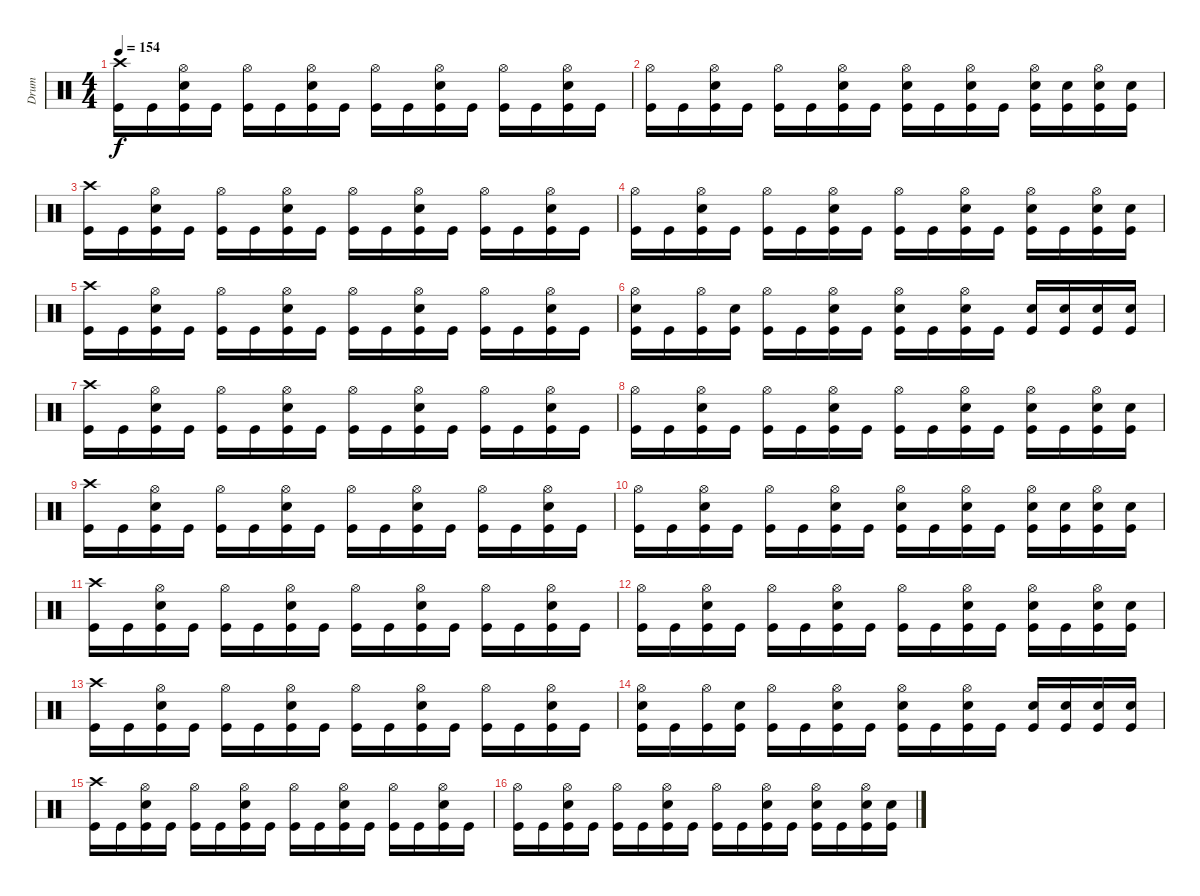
\track ("Drum" "Drum") {instrument percussion}
\staff {score}
\articulation defaults
\ts (4 4)
\tempo 154
\clef neutral
\ks c
("Kick (hit)" "Crash high (hit)").16{dy f} "Kick (hit)".16 ("Kick (hit)" "Electric Snare (hit)" "Hi-Hat (open)").16 "Kick (hit)".16 ("Kick (hit)" "Hi-Hat (open)").16 "Kick (hit)".16 ("Kick (hit)" "Electric Snare (hit)" "Hi-Hat (open)").16 "Kick (hit)".16 ("Kick (hit)" "Hi-Hat (open)").16 "Kick (hit)".16 ("Kick (hit)" "Electric Snare (hit)" "Hi-Hat (open)").16 "Kick (hit)".16 ("Kick (hit)" "Hi-Hat (open)").16 "Kick (hit)".16 ("Kick (hit)" "Electric Snare (hit)" "Hi-Hat (open)").16 "Kick (hit)".16 |
("Kick (hit)" "Hi-Hat (open)").16 "Kick (hit)".16 ("Kick (hit)" "Electric Snare (hit)" "Hi-Hat (open)").16 "Kick (hit)".16 ("Kick (hit)" "Hi-Hat (open)").16 "Kick (hit)".16 ("Kick (hit)" "Electric Snare (hit)" "Hi-Hat (open)").16 "Kick (hit)".16 ("Kick (hit)" "Electric Snare (hit)" "Hi-Hat (open)").16 "Kick (hit)".16 ("Kick (hit)" "Electric Snare (hit)" "Hi-Hat (open)").16 "Kick (hit)".16 ("Kick (hit)" "Electric Snare (hit)" "Hi-Hat (open)").16 ("Kick (hit)" "Electric Snare (hit)").16 ("Kick (hit)" "Electric Snare (hit)" "Hi-Hat (open)").16 ("Kick (hit)" "Electric Snare (hit)").16 |
("Kick (hit)" "Crash high (hit)").16 "Kick (hit)".16 ("Kick (hit)" "Electric Snare (hit)" "Hi-Hat (open)").16 "Kick (hit)".16 ("Kick (hit)" "Hi-Hat (open)").16 "Kick (hit)".16 ("Kick (hit)" "Electric Snare (hit)" "Hi-Hat (open)").16 "Kick (hit)".16 ("Kick (hit)" "Hi-Hat (open)").16 "Kick (hit)".16 ("Kick (hit)" "Electric Snare (hit)" "Hi-Hat (open)").16 "Kick (hit)".16 ("Kick (hit)" "Hi-Hat (open)").16 "Kick (hit)".16 ("Kick (hit)" "Electric Snare (hit)" "Hi-Hat (open)").16 "Kick (hit)".16 |
("Kick (hit)" "Hi-Hat (open)").16 "Kick (hit)".16 ("Kick (hit)" "Electric Snare (hit)" "Hi-Hat (open)").16 "Kick (hit)".16 ("Kick (hit)" "Hi-Hat (open)").16 "Kick (hit)".16 ("Kick (hit)" "Electric Snare (hit)" "Hi-Hat (open)").16 "Kick (hit)".16 ("Kick (hit)" "Hi-Hat (open)").16 "Kick (hit)".16 ("Kick (hit)" "Electric Snare (hit)" "Hi-Hat (open)").16 "Kick (hit)".16 ("Kick (hit)" "Electric Snare (hit)" "Hi-Hat (open)").16 "Kick (hit)".16 ("Kick (hit)" "Electric Snare (hit)" "Hi-Hat (open)").16 ("Kick (hit)" "Electric Snare (hit)").16 |
("Kick (hit)" "Crash high (hit)").16 "Kick (hit)".16 ("Kick (hit)" "Electric Snare (hit)" "Hi-Hat (open)").16 "Kick (hit)".16 ("Kick (hit)" "Hi-Hat (open)").16 "Kick (hit)".16 ("Kick (hit)" "Electric Snare (hit)" "Hi-Hat (open)").16 "Kick (hit)".16 ("Kick (hit)" "Hi-Hat (open)").16 "Kick (hit)".16 ("Kick (hit)" "Electric Snare (hit)" "Hi-Hat (open)").16 "Kick (hit)".16 ("Kick (hit)" "Hi-Hat (open)").16 "Kick (hit)".16 ("Kick (hit)" "Electric Snare (hit)" "Hi-Hat (open)").16 "Kick (hit)".16 |
("Kick (hit)" "Electric Snare (hit)" "Hi-Hat (open)").16 "Kick (hit)".16 ("Kick (hit)" "Hi-Hat (open)").16 ("Kick (hit)" "Electric Snare (hit)").16 ("Kick (hit)" "Hi-Hat (open)").16 "Kick (hit)".16 ("Kick (hit)" "Electric Snare (hit)" "Hi-Hat (open)").16 "Kick (hit)".16 ("Kick (hit)" "Electric Snare (hit)" "Hi-Hat (open)").16 "Kick (hit)".16 ("Kick (hit)" "Electric Snare (hit)" "Hi-Hat (open)").16 "Kick (hit)".16 ("Kick (hit)" "Electric Snare (hit)").16 ("Kick (hit)" "Electric Snare (hit)").16 ("Kick (hit)" "Electric Snare (hit)").16 ("Kick (hit)" "Electric Snare (hit)").16 |
("Kick (hit)" "Crash high (hit)").16 "Kick (hit)".16 ("Kick (hit)" "Electric Snare (hit)" "Hi-Hat (open)").16 "Kick (hit)".16 ("Kick (hit)" "Hi-Hat (open)").16 "Kick (hit)".16 ("Kick (hit)" "Electric Snare (hit)" "Hi-Hat (open)").16 "Kick (hit)".16 ("Kick (hit)" "Hi-Hat (open)").16 "Kick (hit)".16 ("Kick (hit)" "Electric Snare (hit)" "Hi-Hat (open)").16 "Kick (hit)".16 ("Kick (hit)" "Hi-Hat (open)").16 "Kick (hit)".16 ("Kick (hit)" "Electric Snare (hit)" "Hi-Hat (open)").16 "Kick (hit)".16 |
("Kick (hit)" "Hi-Hat (open)").16 "Kick (hit)".16 ("Kick (hit)" "Electric Snare (hit)" "Hi-Hat (open)").16 "Kick (hit)".16 ("Kick (hit)" "Hi-Hat (open)").16 "Kick (hit)".16 ("Kick (hit)" "Electric Snare (hit)" "Hi-Hat (open)").16 "Kick (hit)".16 ("Kick (hit)" "Hi-Hat (open)").16 "Kick (hit)".16 ("Kick (hit)" "Electric Snare (hit)" "Hi-Hat (open)").16 "Kick (hit)".16 ("Kick (hit)" "Electric Snare (hit)" "Hi-Hat (open)").16 "Kick (hit)".16 ("Kick (hit)" "Electric Snare (hit)" "Hi-Hat (open)").16 ("Kick (hit)" "Electric Snare (hit)").16 |
("Kick (hit)" "Crash high (hit)").16 "Kick (hit)".16 ("Kick (hit)" "Electric Snare (hit)" "Hi-Hat (open)").16 "Kick (hit)".16 ("Kick (hit)" "Hi-Hat (open)").16 "Kick (hit)".16 ("Kick (hit)" "Electric Snare (hit)" "Hi-Hat (open)").16 "Kick (hit)".16 ("Kick (hit)" "Hi-Hat (open)").16 "Kick (hit)".16 ("Kick (hit)" "Electric Snare (hit)" "Hi-Hat (open)").16 "Kick (hit)".16 ("Kick (hit)" "Hi-Hat (open)").16 "Kick (hit)".16 ("Kick (hit)" "Electric Snare (hit)" "Hi-Hat (open)").16 "Kick (hit)".16 |
("Kick (hit)" "Hi-Hat (open)").16 "Kick (hit)".16 ("Kick (hit)" "Electric Snare (hit)" "Hi-Hat (open)").16 "Kick (hit)".16 ("Kick (hit)" "Hi-Hat (open)").16 "Kick (hit)".16 ("Kick (hit)" "Electric Snare (hit)" "Hi-Hat (open)").16 "Kick (hit)".16 ("Kick (hit)" "Electric Snare (hit)" "Hi-Hat (open)").16 "Kick (hit)".16 ("Kick (hit)" "Electric Snare (hit)" "Hi-Hat (open)").16 "Kick (hit)".16 ("Kick (hit)" "Electric Snare (hit)" "Hi-Hat (open)").16 ("Kick (hit)" "Electric Snare (hit)").16 ("Kick (hit)" "Electric Snare (hit)" "Hi-Hat (open)").16 ("Kick (hit)" "Electric Snare (hit)").16 |
("Kick (hit)" "Crash high (hit)").16 "Kick (hit)".16 ("Kick (hit)" "Electric Snare (hit)" "Hi-Hat (open)").16 "Kick (hit)".16 ("Kick (hit)" "Hi-Hat (open)").16 "Kick (hit)".16 ("Kick (hit)" "Electric Snare (hit)" "Hi-Hat (open)").16 "Kick (hit)".16 ("Kick (hit)" "Hi-Hat (open)").16 "Kick (hit)".16 ("Kick (hit)" "Electric Snare (hit)" "Hi-Hat (open)").16 "Kick (hit)".16 ("Kick (hit)" "Hi-Hat (open)").16 "Kick (hit)".16 ("Kick (hit)" "Electric Snare (hit)" "Hi-Hat (open)").16 "Kick (hit)".16 |
("Kick (hit)" "Hi-Hat (open)").16 "Kick (hit)".16 ("Kick (hit)" "Electric Snare (hit)" "Hi-Hat (open)").16 "Kick (hit)".16 ("Kick (hit)" "Hi-Hat (open)").16 "Kick (hit)".16 ("Kick (hit)" "Electric Snare (hit)" "Hi-Hat (open)").16 "Kick (hit)".16 ("Kick (hit)" "Hi-Hat (open)").16 "Kick (hit)".16 ("Kick (hit)" "Electric Snare (hit)" "Hi-Hat (open)").16 "Kick (hit)".16 ("Kick (hit)" "Electric Snare (hit)" "Hi-Hat (open)").16 "Kick (hit)".16 ("Kick (hit)" "Electric Snare (hit)" "Hi-Hat (open)").16 ("Kick (hit)" "Electric Snare (hit)").16 |
("Kick (hit)" "Crash high (hit)").16 "Kick (hit)".16 ("Kick (hit)" "Electric Snare (hit)" "Hi-Hat (open)").16 "Kick (hit)".16 ("Kick (hit)" "Hi-Hat (open)").16 "Kick (hit)".16 ("Kick (hit)" "Electric Snare (hit)" "Hi-Hat (open)").16 "Kick (hit)".16 ("Kick (hit)" "Hi-Hat (open)").16 "Kick (hit)".16 ("Kick (hit)" "Electric Snare (hit)" "Hi-Hat (open)").16 "Kick (hit)".16 ("Kick (hit)" "Hi-Hat (open)").16 "Kick (hit)".16 ("Kick (hit)" "Electric Snare (hit)" "Hi-Hat (open)").16 "Kick (hit)".16 |
("Kick (hit)" "Electric Snare (hit)" "Hi-Hat (open)").16 "Kick (hit)".16 ("Kick (hit)" "Hi-Hat (open)").16 ("Kick (hit)" "Electric Snare (hit)").16 ("Kick (hit)" "Hi-Hat (open)").16 "Kick (hit)".16 ("Kick (hit)" "Electric Snare (hit)" "Hi-Hat (open)").16 "Kick (hit)".16 ("Kick (hit)" "Electric Snare (hit)" "Hi-Hat (open)").16 "Kick (hit)".16 ("Kick (hit)" "Electric Snare (hit)" "Hi-Hat (open)").16 "Kick (hit)".16 ("Kick (hit)" "Electric Snare (hit)").16 ("Kick (hit)" "Electric Snare (hit)").16 ("Kick (hit)" "Electric Snare (hit)").16 ("Kick (hit)" "Electric Snare (hit)").16 |
("Kick (hit)" "Crash high (hit)").16 "Kick (hit)".16 ("Kick (hit)" "Electric Snare (hit)" "Hi-Hat (open)").16 "Kick (hit)".16 ("Kick (hit)" "Hi-Hat (open)").16 "Kick (hit)".16 ("Kick (hit)" "Electric Snare (hit)" "Hi-Hat (open)").16 "Kick (hit)".16 ("Kick (hit)" "Hi-Hat (open)").16 "Kick (hit)".16 ("Kick (hit)" "Electric Snare (hit)" "Hi-Hat (open)").16 "Kick (hit)".16 ("Kick (hit)" "Hi-Hat (open)").16 "Kick (hit)".16 ("Kick (hit)" "Electric Snare (hit)" "Hi-Hat (open)").16 "Kick (hit)".16 |
("Kick (hit)" "Hi-Hat (open)").16 "Kick (hit)".16 ("Kick (hit)" "Electric Snare (hit)" "Hi-Hat (open)").16 "Kick (hit)".16 ("Kick (hit)" "Hi-Hat (open)").16 "Kick (hit)".16 ("Kick (hit)" "Electric Snare (hit)" "Hi-Hat (open)").16 "Kick (hit)".16 ("Kick (hit)" "Hi-Hat (open)").16 "Kick (hit)".16 ("Kick (hit)" "Electric Snare (hit)" "Hi-Hat (open)").16 "Kick (hit)".16 ("Kick (hit)" "Electric Snare (hit)" "Hi-Hat (open)").16 "Kick (hit)".16 ("Kick (hit)" "Electric Snare (hit)" "Hi-Hat (open)").16 ("Kick (hit)" "Electric Snare (hit)").16
